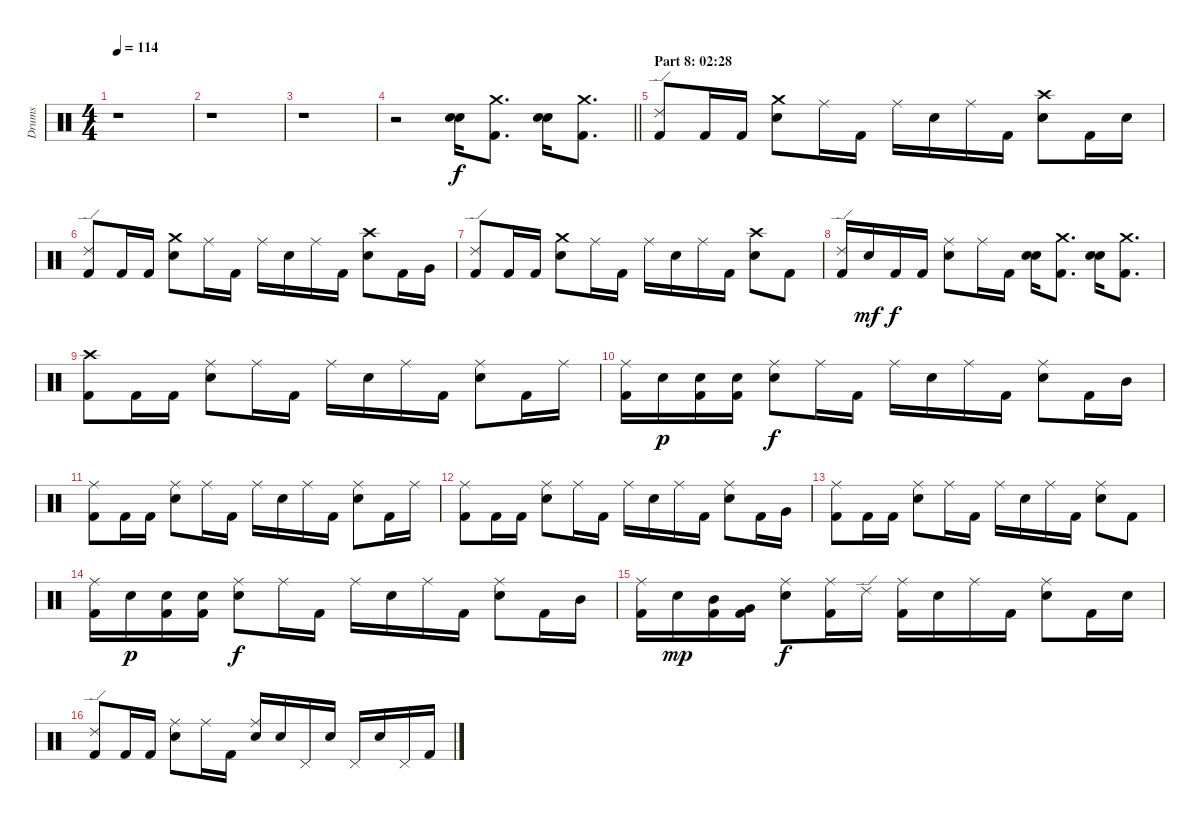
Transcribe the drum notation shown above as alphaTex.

\track ("Drums" "Drums") {instrument percussion}
\staff {score}
\articulation defaults
\ts (4 4)
\tempo 114
\clef neutral
\ks c
r.1{dy f} |
r.1 |
r.1 |
\barLineRight lightlight
r.2 ("Electric Snare (hit)" "Electric Snare (hit)").16{bd 120} ("Crash medium (hit)" "Kick (hit) 2").8{d} ("Electric Snare (hit)" "Electric Snare (hit)").16{bd 120} ("Crash medium (hit)" "Kick (hit) 2").8{d} |
\section ("" "Part 8: 02:28")
("Ride (edge) 2" "Kick (hit) 2").8 "Kick (hit) 2".16 "Kick (hit) 2".16 ("Crash medium (hit)" "Electric Snare (hit)").8 "Ride (middle)".16 "Kick (hit) 2".16 "Ride (middle)".16 "Electric Snare (hit)".16 "Ride (middle)".16 "Kick (hit) 2".16 ("Crash high (hit)" "Electric Snare (hit)").8 "Kick (hit) 2".16 "Electric Snare (hit)".16 |
("Ride (edge) 2" "Kick (hit) 2").8 "Kick (hit) 2".16 "Kick (hit) 2".16 ("Crash medium (hit)" "Electric Snare (hit)").8 "Ride (middle)".16 "Kick (hit) 2".16 "Ride (middle)".16 "Electric Snare (hit)".16 "Ride (middle)".16 "Kick (hit) 2".16 ("Crash high (hit)" "Electric Snare (hit)").8 "Kick (hit) 2".16 "Very Low Tom (hit)".16 |
("Ride (edge) 2" "Kick (hit) 2").8 "Kick (hit) 2".16 "Kick (hit) 2".16 ("Crash medium (hit)" "Electric Snare (hit)").8 "Ride (middle)".16 "Kick (hit) 2".16 "Ride (middle)".16 "Electric Snare (hit)".16 "Ride (middle)".16 "Kick (hit) 2".16 ("Crash high (hit)" "Electric Snare (hit)").8 "Kick (hit) 2".8 |
("Ride (edge) 2" "Kick (hit) 2").16 "Electric Snare (hit)".16{dy mf} "Kick (hit) 2".16{dy f} "Kick (hit) 2".16 ("Ride (middle)" "Electric Snare (hit)").8 "Ride (middle)".16 "Kick (hit) 2".16 ("Electric Snare (hit)" "Electric Snare (hit)").16{bd 120} ("Crash medium (hit)" "Kick (hit) 2").8{d} ("Electric Snare (hit)" "Electric Snare (hit)").16{bd 120} ("Crash medium (hit)" "Kick (hit) 2").8{d} |
("Crash high (hit)" "Kick (hit) 2").8 "Kick (hit) 2".16 "Kick (hit) 2".16 ("Ride (middle)" "Electric Snare (hit)").8 "Ride (middle)".16 "Kick (hit) 2".16 "Ride (middle)".16 "Electric Snare (hit)".16 "Ride (middle)".16 "Kick (hit) 2".16 ("Ride (middle)" "Electric Snare (hit)").8 "Kick (hit) 2".16 "Ride (middle)".16 |
("Ride (middle)" "Kick (hit) 2").16 "Electric Snare (hit)".16{dy p} ("Electric Snare (hit)" "Kick (hit) 2").16 ("Electric Snare (hit)" "Kick (hit) 2").16 ("Ride (middle)" "Electric Snare (hit)").8{dy f} "Ride (middle)".16 "Kick (hit) 2".16 "Ride (middle)".16 "Electric Snare (hit)".16 "Ride (middle)".16 "Kick (hit) 2".16 ("Ride (middle)" "Electric Snare (hit)").8 "Kick (hit) 2".16 "Mid Tom (hit)".16 |
("Ride (middle)" "Kick (hit) 2").8 "Kick (hit) 2".16 "Kick (hit) 2".16 ("Ride (middle)" "Electric Snare (hit)").8 "Ride (middle)".16 "Kick (hit) 2".16 "Ride (middle)".16 "Electric Snare (hit)".16 "Ride (middle)".16 "Kick (hit) 2".16 ("Ride (middle)" "Electric Snare (hit)").8 "Kick (hit) 2".16 "Ride (middle)".16 |
("Ride (middle)" "Kick (hit) 2").8 "Kick (hit) 2".16 "Kick (hit) 2".16 ("Ride (middle)" "Electric Snare (hit)").8 "Ride (middle)".16 "Kick (hit) 2".16 "Ride (middle)".16 "Electric Snare (hit)".16 "Ride (middle)".16 "Kick (hit) 2".16 ("Ride (middle)" "Electric Snare (hit)").8 "Kick (hit) 2".16 "Very Low Tom (hit)".16 |
("Ride (middle)" "Kick (hit) 2").8 "Kick (hit) 2".16 "Kick (hit) 2".16 ("Ride (middle)" "Electric Snare (hit)").8 "Ride (middle)".16 "Kick (hit) 2".16 "Ride (middle)".16 "Electric Snare (hit)".16 "Ride (middle)".16 "Kick (hit) 2".16 ("Ride (middle)" "Electric Snare (hit)").8 "Kick (hit) 2".8 |
("Ride (middle)" "Kick (hit) 2").16 "Electric Snare (hit)".16{dy p} ("Electric Snare (hit)" "Kick (hit) 2").16 ("Electric Snare (hit)" "Kick (hit) 2").16 ("Ride (middle)" "Electric Snare (hit)").8{dy f} "Ride (middle)".16 "Kick (hit) 2".16 "Ride (middle)".16 "Electric Snare (hit)".16 "Ride (middle)".16 "Kick (hit) 2".16 ("Ride (middle)" "Electric Snare (hit)").8 "Kick (hit) 2".16 "Mid Tom (hit)".16 |
("Ride (middle)" "Kick (hit) 2").16 "Electric Snare (hit)".16{dy mp} ("Mid Tom (hit)" "Kick (hit) 2").16 ("Very Low Tom (hit)" "Kick (hit) 2").16 ("Ride (middle)" "Electric Snare (hit)").8{dy f} ("Ride (middle)" "Kick (hit) 2").16 "Ride (edge) 2".16 ("Ride (middle)" "Kick (hit) 2").16 "Electric Snare (hit)".16 "Ride (middle)".16 "Kick (hit) 2".16 ("Ride (middle)" "Electric Snare (hit)").8 "Kick (hit) 2".16 "Electric Snare (hit)".16 |
("Ride (edge) 2" "Kick (hit) 2").8 "Kick (hit) 2".16 "Kick (hit) 2".16 ("Ride (middle)" "Electric Snare (hit)").8 "Ride (middle)".16 "Kick (hit) 2".16 ("Ride (middle)" "Electric Snare (hit)").16 "Electric Snare (hit)".16 "Pedal Hi-Hat (hit)".16 "Electric Snare (hit)".16 "Pedal Hi-Hat (hit)".16 "Electric Snare (hit)".16 "Pedal Hi-Hat (hit)".16 "Kick (hit) 2".16
